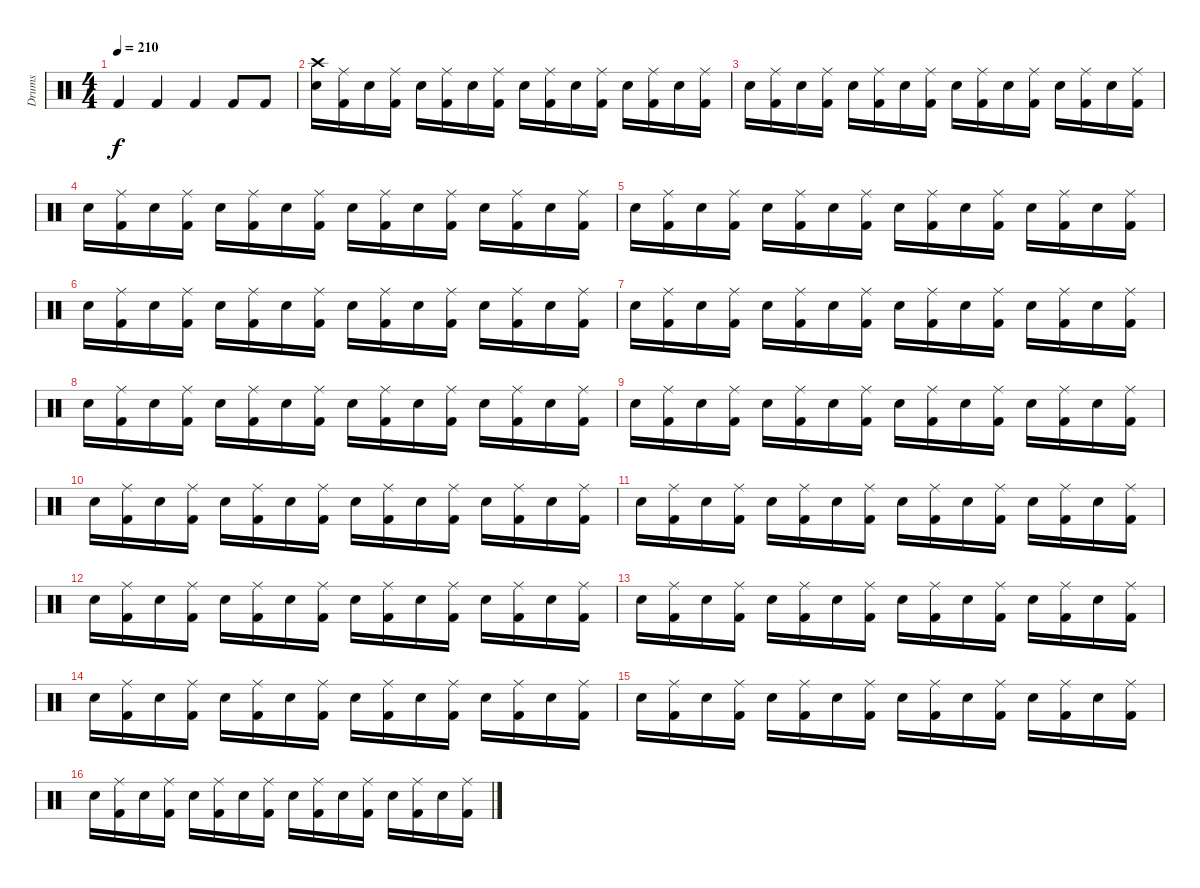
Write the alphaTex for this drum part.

\track ("Drums" "Drums") {instrument percussion}
\staff {score}
\articulation defaults
\ts (4 4)
\tempo 210
\clef neutral
\ks c "Kick (hit) 2".4{dy f} "Kick (hit) 2".4 "Kick (hit) 2".4 "Kick (hit) 2".8 "Kick (hit) 2".8
|
("Crash high (hit)" "Electric Snare (hit)").16 ("Ride (middle)" "Kick (hit) 2").16 "Electric Snare (hit)".16 ("Ride (middle)" "Kick (hit) 2").16 "Electric Snare (hit)".16 ("Ride (middle)" "Kick (hit) 2").16 "Electric Snare (hit)".16 ("Ride (middle)" "Kick (hit) 2").16 "Electric Snare (hit)".16 ("Ride (middle)" "Kick (hit) 2").16 "Electric Snare (hit)".16 ("Ride (middle)" "Kick (hit) 2").16 "Electric Snare (hit)".16 ("Ride (middle)" "Kick (hit) 2").16 "Electric Snare (hit)".16 ("Ride (middle)" "Kick (hit) 2").16 |
"Electric Snare (hit)".16 ("Ride (middle)" "Kick (hit) 2").16 "Electric Snare (hit)".16 ("Ride (middle)" "Kick (hit) 2").16 "Electric Snare (hit)".16 ("Ride (middle)" "Kick (hit) 2").16 "Electric Snare (hit)".16 ("Ride (middle)" "Kick (hit) 2").16 "Electric Snare (hit)".16 ("Ride (middle)" "Kick (hit) 2").16 "Electric Snare (hit)".16 ("Ride (middle)" "Kick (hit) 2").16 "Electric Snare (hit)".16 ("Ride (middle)" "Kick (hit) 2").16 "Electric Snare (hit)".16 ("Ride (middle)" "Kick (hit) 2").16 |
"Electric Snare (hit)".16 ("Ride (middle)" "Kick (hit) 2").16 "Electric Snare (hit)".16 ("Ride (middle)" "Kick (hit) 2").16 "Electric Snare (hit)".16 ("Ride (middle)" "Kick (hit) 2").16 "Electric Snare (hit)".16 ("Ride (middle)" "Kick (hit) 2").16 "Electric Snare (hit)".16 ("Ride (middle)" "Kick (hit) 2").16 "Electric Snare (hit)".16 ("Ride (middle)" "Kick (hit) 2").16 "Electric Snare (hit)".16 ("Ride (middle)" "Kick (hit) 2").16 "Electric Snare (hit)".16 ("Ride (middle)" "Kick (hit) 2").16 |
"Electric Snare (hit)".16 ("Ride (middle)" "Kick (hit) 2").16 "Electric Snare (hit)".16 ("Ride (middle)" "Kick (hit) 2").16 "Electric Snare (hit)".16 ("Ride (middle)" "Kick (hit) 2").16 "Electric Snare (hit)".16 ("Ride (middle)" "Kick (hit) 2").16 "Electric Snare (hit)".16 ("Ride (middle)" "Kick (hit) 2").16 "Electric Snare (hit)".16 ("Ride (middle)" "Kick (hit) 2").16 "Electric Snare (hit)".16 ("Ride (middle)" "Kick (hit) 2").16 "Electric Snare (hit)".16 ("Ride (middle)" "Kick (hit) 2").16 |
"Electric Snare (hit)".16 ("Ride (middle)" "Kick (hit) 2").16 "Electric Snare (hit)".16 ("Ride (middle)" "Kick (hit) 2").16 "Electric Snare (hit)".16 ("Ride (middle)" "Kick (hit) 2").16 "Electric Snare (hit)".16 ("Ride (middle)" "Kick (hit) 2").16 "Electric Snare (hit)".16 ("Ride (middle)" "Kick (hit) 2").16 "Electric Snare (hit)".16 ("Ride (middle)" "Kick (hit) 2").16 "Electric Snare (hit)".16 ("Ride (middle)" "Kick (hit) 2").16 "Electric Snare (hit)".16 ("Ride (middle)" "Kick (hit) 2").16 |
"Electric Snare (hit)".16 ("Ride (middle)" "Kick (hit) 2").16 "Electric Snare (hit)".16 ("Ride (middle)" "Kick (hit) 2").16 "Electric Snare (hit)".16 ("Ride (middle)" "Kick (hit) 2").16 "Electric Snare (hit)".16 ("Ride (middle)" "Kick (hit) 2").16 "Electric Snare (hit)".16 ("Ride (middle)" "Kick (hit) 2").16 "Electric Snare (hit)".16 ("Ride (middle)" "Kick (hit) 2").16 "Electric Snare (hit)".16 ("Ride (middle)" "Kick (hit) 2").16 "Electric Snare (hit)".16 ("Ride (middle)" "Kick (hit) 2").16 |
"Electric Snare (hit)".16 ("Ride (middle)" "Kick (hit) 2").16 "Electric Snare (hit)".16 ("Ride (middle)" "Kick (hit) 2").16 "Electric Snare (hit)".16 ("Ride (middle)" "Kick (hit) 2").16 "Electric Snare (hit)".16 ("Ride (middle)" "Kick (hit) 2").16 "Electric Snare (hit)".16 ("Ride (middle)" "Kick (hit) 2").16 "Electric Snare (hit)".16 ("Ride (middle)" "Kick (hit) 2").16 "Electric Snare (hit)".16 ("Ride (middle)" "Kick (hit) 2").16 "Electric Snare (hit)".16 ("Ride (middle)" "Kick (hit) 2").16 |
"Electric Snare (hit)".16 ("Ride (middle)" "Kick (hit) 2").16 "Electric Snare (hit)".16 ("Ride (middle)" "Kick (hit) 2").16 "Electric Snare (hit)".16 ("Ride (middle)" "Kick (hit) 2").16 "Electric Snare (hit)".16 ("Ride (middle)" "Kick (hit) 2").16 "Electric Snare (hit)".16 ("Ride (middle)" "Kick (hit) 2").16 "Electric Snare (hit)".16 ("Ride (middle)" "Kick (hit) 2").16 "Electric Snare (hit)".16 ("Ride (middle)" "Kick (hit) 2").16 "Electric Snare (hit)".16 ("Ride (middle)" "Kick (hit) 2").16 |
"Electric Snare (hit)".16 ("Ride (middle)" "Kick (hit) 2").16 "Electric Snare (hit)".16 ("Ride (middle)" "Kick (hit) 2").16 "Electric Snare (hit)".16 ("Ride (middle)" "Kick (hit) 2").16 "Electric Snare (hit)".16 ("Ride (middle)" "Kick (hit) 2").16 "Electric Snare (hit)".16 ("Ride (middle)" "Kick (hit) 2").16 "Electric Snare (hit)".16 ("Ride (middle)" "Kick (hit) 2").16 "Electric Snare (hit)".16 ("Ride (middle)" "Kick (hit) 2").16 "Electric Snare (hit)".16 ("Ride (middle)" "Kick (hit) 2").16 |
"Electric Snare (hit)".16 ("Ride (middle)" "Kick (hit) 2").16 "Electric Snare (hit)".16 ("Ride (middle)" "Kick (hit) 2").16 "Electric Snare (hit)".16 ("Ride (middle)" "Kick (hit) 2").16 "Electric Snare (hit)".16 ("Ride (middle)" "Kick (hit) 2").16 "Electric Snare (hit)".16 ("Ride (middle)" "Kick (hit) 2").16 "Electric Snare (hit)".16 ("Ride (middle)" "Kick (hit) 2").16 "Electric Snare (hit)".16 ("Ride (middle)" "Kick (hit) 2").16 "Electric Snare (hit)".16 ("Ride (middle)" "Kick (hit) 2").16 |
"Electric Snare (hit)".16 ("Ride (middle)" "Kick (hit) 2").16 "Electric Snare (hit)".16 ("Ride (middle)" "Kick (hit) 2").16 "Electric Snare (hit)".16 ("Ride (middle)" "Kick (hit) 2").16 "Electric Snare (hit)".16 ("Ride (middle)" "Kick (hit) 2").16 "Electric Snare (hit)".16 ("Ride (middle)" "Kick (hit) 2").16 "Electric Snare (hit)".16 ("Ride (middle)" "Kick (hit) 2").16 "Electric Snare (hit)".16 ("Ride (middle)" "Kick (hit) 2").16 "Electric Snare (hit)".16 ("Ride (middle)" "Kick (hit) 2").16 |
"Electric Snare (hit)".16 ("Ride (middle)" "Kick (hit) 2").16 "Electric Snare (hit)".16 ("Ride (middle)" "Kick (hit) 2").16 "Electric Snare (hit)".16 ("Ride (middle)" "Kick (hit) 2").16 "Electric Snare (hit)".16 ("Ride (middle)" "Kick (hit) 2").16 "Electric Snare (hit)".16 ("Ride (middle)" "Kick (hit) 2").16 "Electric Snare (hit)".16 ("Ride (middle)" "Kick (hit) 2").16 "Electric Snare (hit)".16 ("Ride (middle)" "Kick (hit) 2").16 "Electric Snare (hit)".16 ("Ride (middle)" "Kick (hit) 2").16 |
"Electric Snare (hit)".16 ("Ride (middle)" "Kick (hit) 2").16 "Electric Snare (hit)".16 ("Ride (middle)" "Kick (hit) 2").16 "Electric Snare (hit)".16 ("Ride (middle)" "Kick (hit) 2").16 "Electric Snare (hit)".16 ("Ride (middle)" "Kick (hit) 2").16 "Electric Snare (hit)".16 ("Ride (middle)" "Kick (hit) 2").16 "Electric Snare (hit)".16 ("Ride (middle)" "Kick (hit) 2").16 "Electric Snare (hit)".16 ("Ride (middle)" "Kick (hit) 2").16 "Electric Snare (hit)".16 ("Ride (middle)" "Kick (hit) 2").16 |
"Electric Snare (hit)".16 ("Ride (middle)" "Kick (hit) 2").16 "Electric Snare (hit)".16 ("Ride (middle)" "Kick (hit) 2").16 "Electric Snare (hit)".16 ("Ride (middle)" "Kick (hit) 2").16 "Electric Snare (hit)".16 ("Ride (middle)" "Kick (hit) 2").16 "Electric Snare (hit)".16 ("Ride (middle)" "Kick (hit) 2").16 "Electric Snare (hit)".16 ("Ride (middle)" "Kick (hit) 2").16 "Electric Snare (hit)".16 ("Ride (middle)" "Kick (hit) 2").16 "Electric Snare (hit)".16 ("Ride (middle)" "Kick (hit) 2").16 |
"Electric Snare (hit)".16 ("Ride (middle)" "Kick (hit) 2").16 "Electric Snare (hit)".16 ("Ride (middle)" "Kick (hit) 2").16 "Electric Snare (hit)".16 ("Ride (middle)" "Kick (hit) 2").16 "Electric Snare (hit)".16 ("Ride (middle)" "Kick (hit) 2").16 "Electric Snare (hit)".16 ("Ride (middle)" "Kick (hit) 2").16 "Electric Snare (hit)".16 ("Ride (middle)" "Kick (hit) 2").16 "Electric Snare (hit)".16 ("Ride (middle)" "Kick (hit) 2").16 "Electric Snare (hit)".16 ("Ride (middle)" "Kick (hit) 2").16
